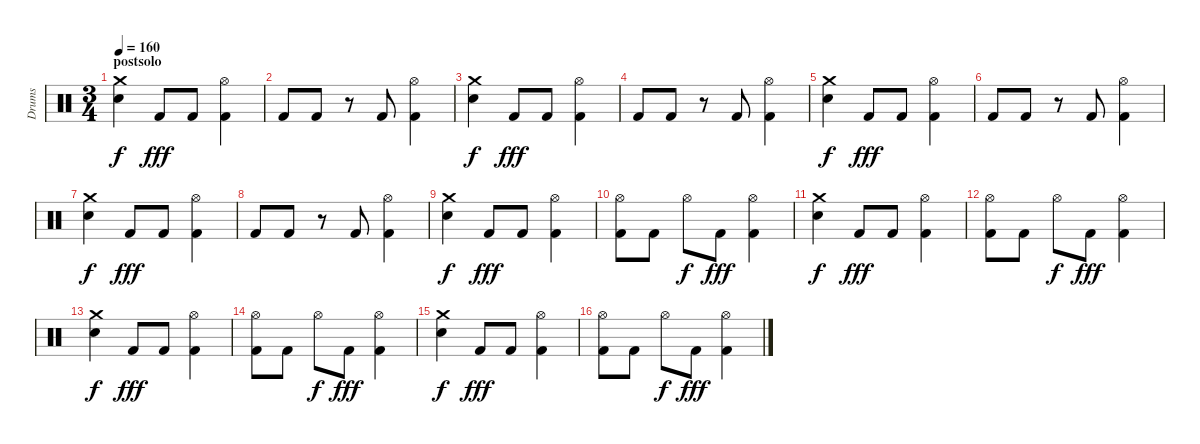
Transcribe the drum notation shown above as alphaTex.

\track ("Drums" "Drums") {instrument percussion}
\staff {score}
\articulation defaults
\ts (3 4)
\section ("" "postsolo")
\tempo 160
\clef neutral
\ks c
("Crash medium (hit)" "Electric Snare (hit)").4{dy f} "Kick (hit) 2".8{dy fff} "Kick (hit) 2".8 ("Hi-Hat (open)" "Kick (hit) 2").4 |
"Kick (hit) 2".8 "Kick (hit) 2".8 r.8 "Kick (hit) 2".8 ("Hi-Hat (open)" "Kick (hit) 2").4 |
("Crash medium (hit)" "Electric Snare (hit)").4{dy f} "Kick (hit) 2".8{dy fff} "Kick (hit) 2".8 ("Hi-Hat (open)" "Kick (hit) 2").4 |
"Kick (hit) 2".8 "Kick (hit) 2".8 r.8 "Kick (hit) 2".8 ("Hi-Hat (open)" "Kick (hit) 2").4 |
("Crash medium (hit)" "Electric Snare (hit)").4{dy f} "Kick (hit) 2".8{dy fff} "Kick (hit) 2".8 ("Hi-Hat (open)" "Kick (hit) 2").4 |
"Kick (hit) 2".8 "Kick (hit) 2".8 r.8 "Kick (hit) 2".8 ("Hi-Hat (open)" "Kick (hit) 2").4 |
("Crash medium (hit)" "Electric Snare (hit)").4{dy f} "Kick (hit) 2".8{dy fff} "Kick (hit) 2".8 ("Hi-Hat (open)" "Kick (hit) 2").4 |
"Kick (hit) 2".8 "Kick (hit) 2".8 r.8 "Kick (hit) 2".8 ("Hi-Hat (open)" "Kick (hit) 2").4 |
("Crash medium (hit)" "Electric Snare (hit)").4{dy f} "Kick (hit) 2".8{dy fff} "Kick (hit) 2".8 ("Hi-Hat (open)" "Kick (hit) 2").4 |
("Hi-Hat (open)" "Kick (hit) 2").8 "Kick (hit) 2".8 "Hi-Hat (open)".8{dy f} "Kick (hit) 2".8{dy fff} ("Hi-Hat (open)" "Kick (hit) 2").4 |
("Crash medium (hit)" "Electric Snare (hit)").4{dy f} "Kick (hit) 2".8{dy fff} "Kick (hit) 2".8 ("Hi-Hat (open)" "Kick (hit) 2").4 |
("Hi-Hat (open)" "Kick (hit) 2").8 "Kick (hit) 2".8 "Hi-Hat (open)".8{dy f} "Kick (hit) 2".8{dy fff} ("Hi-Hat (open)" "Kick (hit) 2").4 |
("Crash medium (hit)" "Electric Snare (hit)").4{dy f} "Kick (hit) 2".8{dy fff} "Kick (hit) 2".8 ("Hi-Hat (open)" "Kick (hit) 2").4 |
("Hi-Hat (open)" "Kick (hit) 2").8 "Kick (hit) 2".8 "Hi-Hat (open)".8{dy f} "Kick (hit) 2".8{dy fff} ("Hi-Hat (open)" "Kick (hit) 2").4 |
("Crash medium (hit)" "Electric Snare (hit)").4{dy f} "Kick (hit) 2".8{dy fff} "Kick (hit) 2".8 ("Hi-Hat (open)" "Kick (hit) 2").4 |
("Hi-Hat (open)" "Kick (hit) 2").8 "Kick (hit) 2".8 "Hi-Hat (open)".8{dy f} "Kick (hit) 2".8{dy fff} ("Hi-Hat (open)" "Kick (hit) 2").4
